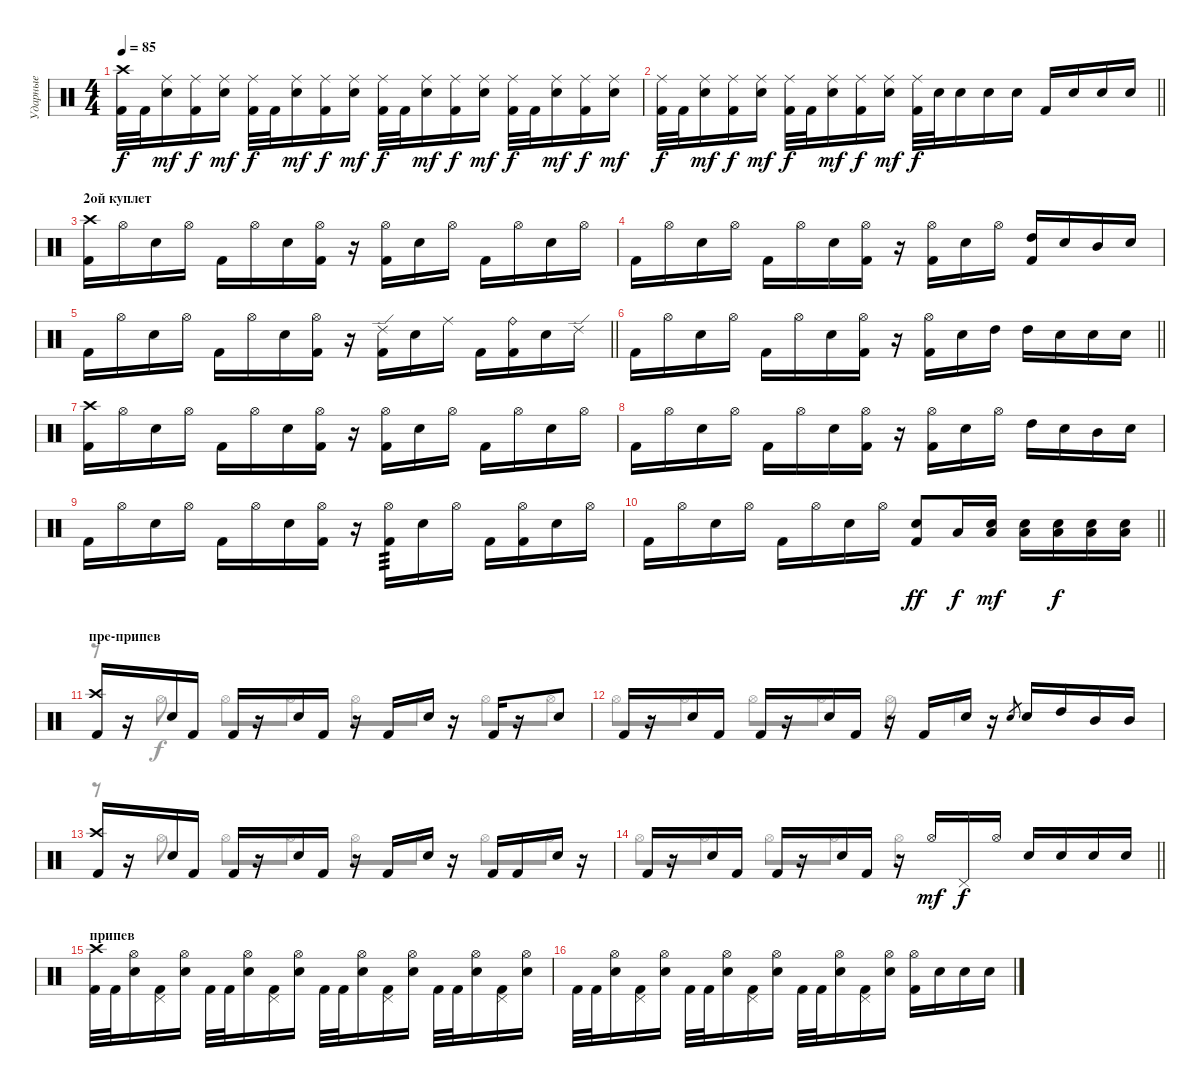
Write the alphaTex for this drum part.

\track ("Ударные" "Ударные") {instrument percussion}
\staff {score}
\articulation defaults
\voice
\ts (4 4)
\tempo 85
\clef neutral
\ks c
("Kick (hit) 2" "Crash high (hit)").32{dy f} "Kick (hit) 2".32 ("Electric Snare (hit)" "Ride (middle)").16{dy mf} ("Kick (hit) 2" "Ride (middle)").16{dy f} ("Electric Snare (hit)" "Ride (middle)").16{dy mf} ("Kick (hit) 2" "Ride (middle)").32{dy f} "Kick (hit) 2".32 ("Electric Snare (hit)" "Ride (middle)").16{dy mf} ("Kick (hit) 2" "Ride (middle)").16{dy f} ("Electric Snare (hit)" "Ride (middle)").16{dy mf} ("Kick (hit) 2" "Ride (middle)").32{dy f} "Kick (hit) 2".32 ("Electric Snare (hit)" "Ride (middle)").16{dy mf} ("Kick (hit) 2" "Ride (middle)").16{dy f} ("Electric Snare (hit)" "Ride (middle)").16{dy mf} ("Kick (hit) 2" "Ride (middle)").32{dy f} "Kick (hit) 2".32 ("Electric Snare (hit)" "Ride (middle)").16{dy mf} ("Kick (hit) 2" "Ride (middle)").16{dy f} ("Electric Snare (hit)" "Ride (middle)").16{dy mf} |
\barLineRight lightlight
("Kick (hit) 2" "Ride (middle)").32{dy f} "Kick (hit) 2".32 ("Electric Snare (hit)" "Ride (middle)").16{dy mf} ("Kick (hit) 2" "Ride (middle)").16{dy f} ("Electric Snare (hit)" "Ride (middle)").16{dy mf} ("Kick (hit) 2" "Ride (middle)").32{dy f} "Kick (hit) 2".32 ("Electric Snare (hit)" "Ride (middle)").16{dy mf} ("Kick (hit) 2" "Ride (middle)").16{dy f} ("Electric Snare (hit)" "Ride (middle)").16{dy mf} ("Kick (hit) 2" "Ride (middle)").32{dy f} "Electric Snare (hit)".32 "Electric Snare (hit)".16 "Electric Snare (hit)".16 "Electric Snare (hit)".16 "Kick (hit) 2".16 "Electric Snare (hit)".16 "Electric Snare (hit)".16 "Electric Snare (hit)".16 |
\section ("" "2ой куплет")
("Kick (hit) 2" "Crash high (hit)").16 "Hi-Hat (open)".16 "Electric Snare (hit)".16 "Hi-Hat (open)".16 "Kick (hit) 2".16 "Hi-Hat (open)".16 "Electric Snare (hit)".16 ("Kick (hit) 2" "Hi-Hat (open)").16 r.16 ("Kick (hit) 2" "Hi-Hat (open)").16 "Electric Snare (hit)".16 "Hi-Hat (open)".16 "Kick (hit) 2".16 "Hi-Hat (open)".16 "Electric Snare (hit)".16 "Hi-Hat (open)".16 |
"Kick (hit) 2".16 "Hi-Hat (open)".16 "Electric Snare (hit)".16 "Hi-Hat (open)".16 "Kick (hit) 2".16 "Hi-Hat (open)".16 "Electric Snare (hit)".16 ("Kick (hit) 2" "Hi-Hat (open)").16 r.16 ("Kick (hit) 2" "Hi-Hat (open)").16 "Electric Snare (hit)".16 "Hi-Hat (open)".16 ("High Tom (hit)" "Kick (hit) 2").16 "Electric Snare (hit)".16 "Mid Tom (hit)".16 "Electric Snare (hit)".16 |
\barLineRight lightlight "Kick (hit) 2".16 "Hi-Hat (open)".16 "Electric Snare (hit)".16 "Hi-Hat (open)".16 "Kick (hit) 2".16 "Hi-Hat (open)".16 "Electric Snare (hit)".16
("Kick (hit) 2" "Hi-Hat (open)").16 r.16 ("Kick (hit) 2" "Ride (edge) 2").16 "Electric Snare (hit)".16 "Ride (middle)".16 "Kick (hit) 2".16 ("Kick (hit) 2" "Ride (bell)").16 "Electric Snare (hit)".16 "Ride (edge) 2".16 |
\barLineRight lightlight "Kick (hit) 2".16 "Hi-Hat (open)".16 "Electric Snare (hit)".16 "Hi-Hat (open)".16 "Kick (hit) 2".16 "Hi-Hat (open)".16 "Electric Snare (hit)".16
("Kick (hit) 2" "Hi-Hat (open)").16 r.16 ("Kick (hit) 2" "Hi-Hat (open)").16 "Electric Snare (hit)".16 "High Tom (hit)".16 "High Tom (hit)".16 "Electric Snare (hit)".16 "Electric Snare (hit)".16 "Electric Snare (hit)".16 |
("Kick (hit) 2" "Crash high (hit)").16 "Hi-Hat (open)".16 "Electric Snare (hit)".16 "Hi-Hat (open)".16 "Kick (hit) 2".16 "Hi-Hat (open)".16 "Electric Snare (hit)".16 ("Kick (hit) 2" "Hi-Hat (open)").16 r.16 ("Kick (hit) 2" "Hi-Hat (open)").16 "Electric Snare (hit)".16 "Hi-Hat (open)".16 "Kick (hit) 2".16 "Hi-Hat (open)".16 "Electric Snare (hit)".16 "Hi-Hat (open)".16 |
"Kick (hit) 2".16 "Hi-Hat (open)".16 "Electric Snare (hit)".16 "Hi-Hat (open)".16 "Kick (hit) 2".16 "Hi-Hat (open)".16 "Electric Snare (hit)".16 ("Kick (hit) 2" "Hi-Hat (open)").16 r.16 ("Kick (hit) 2" "Hi-Hat (open)").16 "Electric Snare (hit)".16 "Hi-Hat (open)".16 "High Tom (hit)".16 "Electric Snare (hit)".16 "Mid Tom (hit)".16 "Electric Snare (hit)".16 |
"Kick (hit) 2".16 "Hi-Hat (open)".16 "Electric Snare (hit)".16 "Hi-Hat (open)".16 "Kick (hit) 2".16 "Hi-Hat (open)".16 "Electric Snare (hit)".16 ("Kick (hit) 2" "Hi-Hat (open)").16 r.16 ("Kick (hit) 2" "Hi-Hat (open)").16{tp 3} "Electric Snare (hit)".16 "Hi-Hat (open)".16 "Kick (hit) 2".16 ("Kick (hit) 2" "Hi-Hat (open)").16 "Electric Snare (hit)".16 "Hi-Hat (open)".16 |
\barLineRight lightlight "Kick (hit) 2".16 "Hi-Hat (open)".16 "Electric Snare (hit)".16 "Hi-Hat (open)".16 "Kick (hit) 2".16 "Hi-Hat (open)".16 "Electric Snare (hit)".16 "Hi-Hat (open)".16
("Kick (hit) 2" "Electric Snare (hit)").8{dy ff} "Low Floor Tom (hit)".16{dy f} ("Electric Snare (hit)" "Low Floor Tom (hit)").16{dy mf} ("Electric Snare (hit)" "Low Floor Tom (hit)").16 ("Electric Snare (hit)" "Low Floor Tom (hit)").16{dy f} ("Electric Snare (hit)" "Low Floor Tom (hit)").16 ("Electric Snare (hit)" "Low Floor Tom (hit)").16 |
\section ("" "пре-припев")
("Kick (hit) 2" "Crash high (hit)").16 r.16 "Electric Snare (hit)".16 "Kick (hit) 2".16 "Kick (hit) 2".16 r.16 "Electric Snare (hit)".16 "Kick (hit) 2".16 r.16 "Kick (hit) 2".16 "Electric Snare (hit)".16 r.16 "Kick (hit) 2".16 r.16 "Electric Snare (hit)".8 |
"Kick (hit) 2".16 r.16 "Electric Snare (hit)".16 "Kick (hit) 2".16 "Kick (hit) 2".16 r.16 "Electric Snare (hit)".16 "Kick (hit) 2".16 r.16 "Kick (hit) 2".16 "Electric Snare (hit)".16 r.16 "Electric Snare (hit)".8{gr} "Electric Snare (hit)".16 "High Tom (hit)".16 "Mid Tom (hit)".16 "Mid Tom (hit)".16 |
("Kick (hit) 2" "Crash high (hit)").16 r.16 "Electric Snare (hit)".16 "Kick (hit) 2".16 "Kick (hit) 2".16 r.16 "Electric Snare (hit)".16 "Kick (hit) 2".16 r.16 "Kick (hit) 2".16 "Electric Snare (hit)".16 r.16 "Kick (hit) 2".16 "Kick (hit) 2".16 "Electric Snare (hit)".16 r.16 |
\barLineRight lightlight "Kick (hit) 2".16
r.16 "Electric Snare (hit)".16 "Kick (hit) 2".16 "Kick (hit) 2".16 r.16 "Electric Snare (hit)".16 "Kick (hit) 2".16 r.16 "Hi-Hat (open)".16{dy mf} "Pedal Hi-Hat (hit)".16{dy f} "Hi-Hat (open)".16 "Electric Snare (hit)".16 "Electric Snare (hit)".16 "Electric Snare (hit)".16 "Electric Snare (hit)".16 |
\section ("" "припев")
("Kick (hit) 2" "Crash high (hit)").32 "Kick (hit) 2".32 ("Electric Snare (hit)" "Hi-Hat (open)").16 ("Kick (hit) 2" "Pedal Hi-Hat (hit)").16 ("Electric Snare (hit)" "Hi-Hat (open)").16 "Kick (hit) 2".32 "Kick (hit) 2".32 ("Electric Snare (hit)" "Hi-Hat (open)").16 ("Kick (hit) 2" "Pedal Hi-Hat (hit)").16 ("Electric Snare (hit)" "Hi-Hat (open)").16 "Kick (hit) 2".32 "Kick (hit) 2".32 ("Electric Snare (hit)" "Hi-Hat (open)").16 ("Kick (hit) 2" "Pedal Hi-Hat (hit)").16 ("Electric Snare (hit)" "Hi-Hat (open)").16 "Kick (hit) 2".32 "Kick (hit) 2".32 ("Electric Snare (hit)" "Hi-Hat (open)").16 ("Kick (hit) 2" "Pedal Hi-Hat (hit)").16 ("Electric Snare (hit)" "Hi-Hat (open)").16 |
"Kick (hit) 2".32 "Kick (hit) 2".32 ("Electric Snare (hit)" "Hi-Hat (open)").16 ("Kick (hit) 2" "Pedal Hi-Hat (hit)").16 ("Electric Snare (hit)" "Hi-Hat (open)").16 "Kick (hit) 2".32 "Kick (hit) 2".32 ("Electric Snare (hit)" "Hi-Hat (open)").16 ("Kick (hit) 2" "Pedal Hi-Hat (hit)").16 ("Electric Snare (hit)" "Hi-Hat (open)").16 "Kick (hit) 2".32 "Kick (hit) 2".32 ("Electric Snare (hit)" "Hi-Hat (open)").16 ("Kick (hit) 2" "Pedal Hi-Hat (hit)").16 ("Electric Snare (hit)" "Hi-Hat (open)").16 ("Kick (hit) 2" "Hi-Hat (open)").16 "Electric Snare (hit)".16 "Electric Snare (hit)".16 "Electric Snare (hit)".16
\voice
\clef neutral
\ottava regular
\simile none
\ks c
|
\barLineRight lightlight
|
|
|
\barLineRight lightlight
|
\barLineRight lightlight
|
|
|
|
\barLineRight lightlight
|
r.8 "Hi-Hat (open)".8 "Hi-Hat (open)".8 "Hi-Hat (open)".8 "Hi-Hat (open)".8 "Hi-Hat (open)".8 "Hi-Hat (open)".8 "Hi-Hat (open)".8 |
"Hi-Hat (open)".8 "Hi-Hat (open)".8 "Hi-Hat (open)".8 "Hi-Hat (open)".8 "Hi-Hat (open)".8 "Hi-Hat (open)".4{d} |
r.8 "Hi-Hat (open)".8 "Hi-Hat (open)".8 "Hi-Hat (open)".8 "Hi-Hat (open)".8 "Hi-Hat (open)".8 "Hi-Hat (open)".8 "Hi-Hat (open)".8 |
\barLineRight lightlight "Hi-Hat (open)".8 "Hi-Hat (open)".8 "Hi-Hat (open)".8 "Hi-Hat (open)".8 "Hi-Hat (open)".2
|
|
